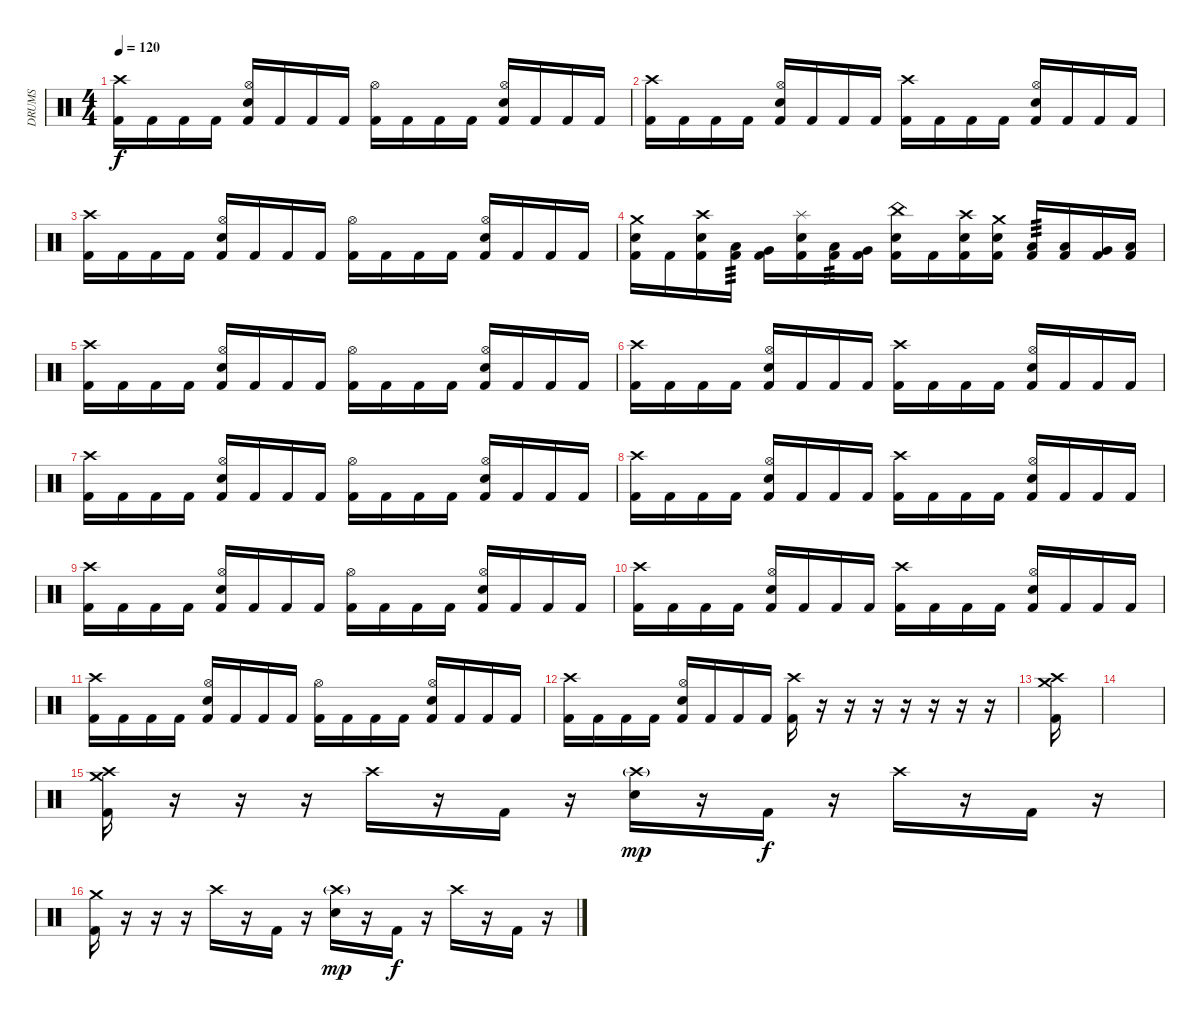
\track ("DRUMS" "DRUMS") {instrument percussion}
\staff {score}
\articulation defaults
\ts (4 4)
\tempo 120
\clef neutral
\ks c
("Crash high (hit)" "Kick (hit) 2").16{dy f} "Kick (hit) 2".16 "Kick (hit) 2".16 "Kick (hit) 2".16 ("Hi-Hat (open)" "Electric Snare (hit)" "Kick (hit) 2").16 "Kick (hit) 2".16 "Kick (hit) 2".16 "Kick (hit) 2".16 ("Hi-Hat (open)" "Kick (hit) 2").16 "Kick (hit) 2".16 "Kick (hit) 2".16 "Kick (hit) 2".16 ("Hi-Hat (open)" "Electric Snare (hit)" "Kick (hit) 2").16 "Kick (hit) 2".16 "Kick (hit) 2".16 "Kick (hit) 2".16 |
("Crash high (hit)" "Kick (hit) 2").16 "Kick (hit) 2".16 "Kick (hit) 2".16 "Kick (hit) 2".16 ("Hi-Hat (open)" "Electric Snare (hit)" "Kick (hit) 2").16 "Kick (hit) 2".16 "Kick (hit) 2".16 "Kick (hit) 2".16 ("Crash high (hit)" "Kick (hit) 2").16 "Kick (hit) 2".16 "Kick (hit) 2".16 "Kick (hit) 2".16 ("Hi-Hat (open)" "Electric Snare (hit)" "Kick (hit) 2").16 "Kick (hit) 2".16 "Kick (hit) 2".16 "Kick (hit) 2".16 |
("Crash high (hit)" "Kick (hit) 2").16 "Kick (hit) 2".16 "Kick (hit) 2".16 "Kick (hit) 2".16 ("Hi-Hat (open)" "Electric Snare (hit)" "Kick (hit) 2").16 "Kick (hit) 2".16 "Kick (hit) 2".16 "Kick (hit) 2".16 ("Hi-Hat (open)" "Kick (hit) 2").16 "Kick (hit) 2".16 "Kick (hit) 2".16 "Kick (hit) 2".16 ("Hi-Hat (open)" "Electric Snare (hit)" "Kick (hit) 2").16 "Kick (hit) 2".16 "Kick (hit) 2".16 "Kick (hit) 2".16 |
("Crash medium (hit)" "Electric Snare (hit)" "Kick (hit) 2").16 "Kick (hit) 2".16 ("Crash high (hit)" "Electric Snare (hit)" "Kick (hit) 2").16 ("Low Tom (hit)" "Kick (hit) 2").16{tp 3} ("Very Low Tom (hit)" "Kick (hit) 2").16 ("Splash (hit)" "Electric Snare (hit)" "Kick (hit) 2").16 ("Low Tom (hit)" "Kick (hit) 2").16{tp 3} ("Very Low Tom (hit)" "Kick (hit) 2").16 ("China (hit)" "Electric Snare (hit)" "Kick (hit) 2").16 "Kick (hit) 2".16 ("Crash high (hit)" "Electric Snare (hit)" "Kick (hit) 2").16 ("Crash medium (hit)" "Electric Snare (hit)" "Kick (hit) 2").16 ("Low Tom (hit)" "Kick (hit) 2").16{tp 3} ("Low Tom (hit)" "Kick (hit) 2").16 ("Very Low Tom (hit)" "Kick (hit) 2").16 ("Low Floor Tom (hit)" "Kick (hit) 2").16 |
("Crash high (hit)" "Kick (hit) 2").16 "Kick (hit) 2".16 "Kick (hit) 2".16 "Kick (hit) 2".16 ("Hi-Hat (open)" "Electric Snare (hit)" "Kick (hit) 2").16 "Kick (hit) 2".16 "Kick (hit) 2".16 "Kick (hit) 2".16 ("Hi-Hat (open)" "Kick (hit) 2").16 "Kick (hit) 2".16 "Kick (hit) 2".16 "Kick (hit) 2".16 ("Hi-Hat (open)" "Electric Snare (hit)" "Kick (hit) 2").16 "Kick (hit) 2".16 "Kick (hit) 2".16 "Kick (hit) 2".16 |
("Crash high (hit)" "Kick (hit) 2").16 "Kick (hit) 2".16 "Kick (hit) 2".16 "Kick (hit) 2".16 ("Hi-Hat (open)" "Electric Snare (hit)" "Kick (hit) 2").16 "Kick (hit) 2".16 "Kick (hit) 2".16 "Kick (hit) 2".16 ("Crash high (hit)" "Kick (hit) 2").16 "Kick (hit) 2".16 "Kick (hit) 2".16 "Kick (hit) 2".16 ("Hi-Hat (open)" "Electric Snare (hit)" "Kick (hit) 2").16 "Kick (hit) 2".16 "Kick (hit) 2".16 "Kick (hit) 2".16 |
("Crash high (hit)" "Kick (hit) 2").16 "Kick (hit) 2".16 "Kick (hit) 2".16 "Kick (hit) 2".16 ("Hi-Hat (open)" "Electric Snare (hit)" "Kick (hit) 2").16 "Kick (hit) 2".16 "Kick (hit) 2".16 "Kick (hit) 2".16 ("Hi-Hat (open)" "Kick (hit) 2").16 "Kick (hit) 2".16 "Kick (hit) 2".16 "Kick (hit) 2".16 ("Hi-Hat (open)" "Electric Snare (hit)" "Kick (hit) 2").16 "Kick (hit) 2".16 "Kick (hit) 2".16 "Kick (hit) 2".16 |
("Crash high (hit)" "Kick (hit) 2").16 "Kick (hit) 2".16 "Kick (hit) 2".16 "Kick (hit) 2".16 ("Hi-Hat (open)" "Electric Snare (hit)" "Kick (hit) 2").16 "Kick (hit) 2".16 "Kick (hit) 2".16 "Kick (hit) 2".16 ("Crash high (hit)" "Kick (hit) 2").16 "Kick (hit) 2".16 "Kick (hit) 2".16 "Kick (hit) 2".16 ("Hi-Hat (open)" "Electric Snare (hit)" "Kick (hit) 2").16 "Kick (hit) 2".16 "Kick (hit) 2".16 "Kick (hit) 2".16 |
("Crash high (hit)" "Kick (hit) 2").16 "Kick (hit) 2".16 "Kick (hit) 2".16 "Kick (hit) 2".16 ("Hi-Hat (open)" "Electric Snare (hit)" "Kick (hit) 2").16 "Kick (hit) 2".16 "Kick (hit) 2".16 "Kick (hit) 2".16 ("Hi-Hat (open)" "Kick (hit) 2").16 "Kick (hit) 2".16 "Kick (hit) 2".16 "Kick (hit) 2".16 ("Hi-Hat (open)" "Electric Snare (hit)" "Kick (hit) 2").16 "Kick (hit) 2".16 "Kick (hit) 2".16 "Kick (hit) 2".16 |
("Crash high (hit)" "Kick (hit) 2").16 "Kick (hit) 2".16 "Kick (hit) 2".16 "Kick (hit) 2".16 ("Hi-Hat (open)" "Electric Snare (hit)" "Kick (hit) 2").16 "Kick (hit) 2".16 "Kick (hit) 2".16 "Kick (hit) 2".16 ("Crash high (hit)" "Kick (hit) 2").16 "Kick (hit) 2".16 "Kick (hit) 2".16 "Kick (hit) 2".16 ("Hi-Hat (open)" "Electric Snare (hit)" "Kick (hit) 2").16 "Kick (hit) 2".16 "Kick (hit) 2".16 "Kick (hit) 2".16 |
("Crash high (hit)" "Kick (hit) 2").16 "Kick (hit) 2".16 "Kick (hit) 2".16 "Kick (hit) 2".16 ("Hi-Hat (open)" "Electric Snare (hit)" "Kick (hit) 2").16 "Kick (hit) 2".16 "Kick (hit) 2".16 "Kick (hit) 2".16 ("Hi-Hat (open)" "Kick (hit) 2").16 "Kick (hit) 2".16 "Kick (hit) 2".16 "Kick (hit) 2".16 ("Hi-Hat (open)" "Electric Snare (hit)" "Kick (hit) 2").16 "Kick (hit) 2".16 "Kick (hit) 2".16 "Kick (hit) 2".16 |
("Crash high (hit)" "Kick (hit) 2").16 "Kick (hit) 2".16 "Kick (hit) 2".16 "Kick (hit) 2".16 ("Hi-Hat (open)" "Electric Snare (hit)" "Kick (hit) 2").16 "Kick (hit) 2".16 "Kick (hit) 2".16 "Kick (hit) 2".16 ("Crash high (hit)" "Kick (hit) 2").16 r.16 r.16 r.16 r.16 r.16 r.16 r.16 |
("Crash medium (hit)" "Crash high (hit)" "Kick (hit) 2").16 |
|
("Crash high (hit)" "Crash medium (hit)" "Kick (hit) 2").16 r.16 r.16 r.16 "Crash high (hit)".16 r.16 "Kick (hit) 2".16 r.16 ("Crash high (hit)"{g} "Electric Snare (hit)").16{dy mp} r.16 "Kick (hit) 2".16{dy f} r.16 "Crash high (hit)".16 r.16 "Kick (hit) 2".16 r.16 |
("Crash medium (hit)" "Kick (hit) 2").16 r.16 r.16 r.16 "Crash high (hit)".16 r.16 "Kick (hit) 2".16 r.16 ("Crash high (hit)"{g} "Electric Snare (hit)").16{dy mp} r.16 "Kick (hit) 2".16{dy f} r.16 "Crash high (hit)".16 r.16 "Kick (hit) 2".16 r.16
